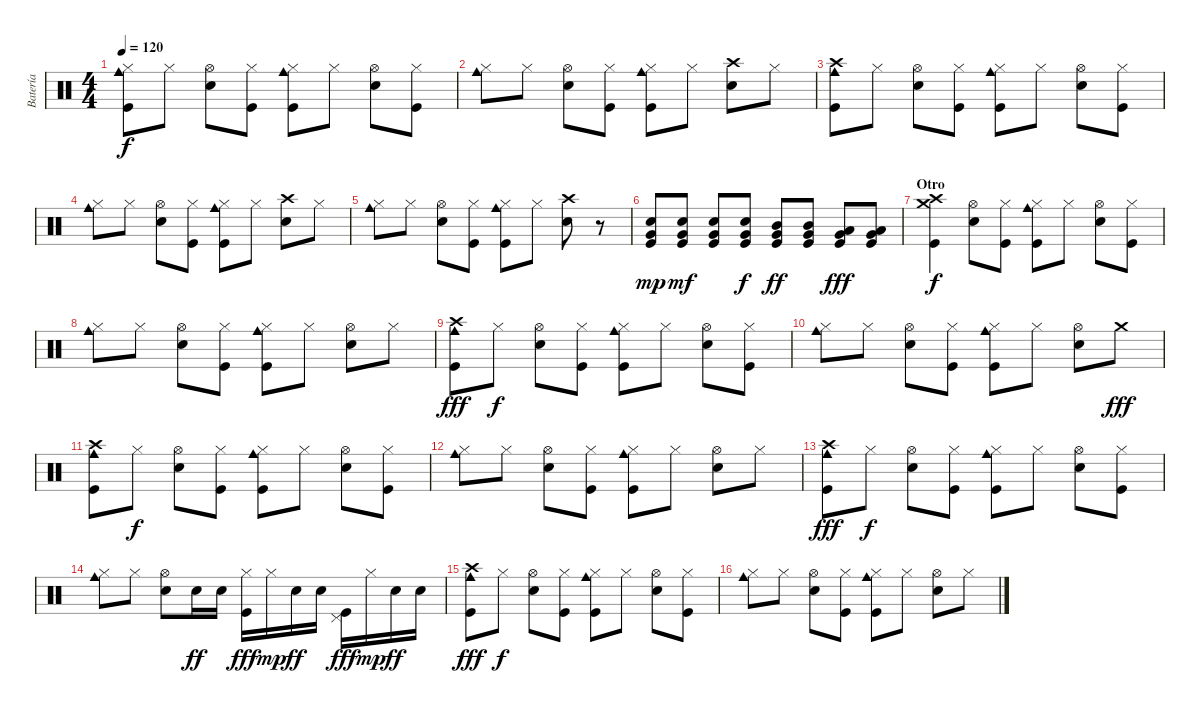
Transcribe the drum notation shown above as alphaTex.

\track ("Batería" "Batería") {instrument percussion}
\staff {score}
\articulation defaults
\ts (4 4)
\tempo 120
\clef neutral
\ks c
("Hi-Hat (closed)" "Cowbell medium (hit)" "Kick (hit)").8{dy f} "Hi-Hat (closed)".8 ("Hi-Hat (open)" "Electric Snare (hit)").8 ("Hi-Hat (closed)" "Kick (hit)").8 ("Hi-Hat (closed)" "Cowbell medium (hit)" "Kick (hit)").8 "Hi-Hat (closed)".8 ("Hi-Hat (open)" "Electric Snare (hit)").8 ("Hi-Hat (closed)" "Kick (hit)").8 |
("Hi-Hat (closed)" "Cowbell medium (hit)").8 "Hi-Hat (closed)".8 ("Hi-Hat (open)" "Electric Snare (hit)").8 ("Hi-Hat (closed)" "Kick (hit)").8 ("Hi-Hat (closed)" "Cowbell medium (hit)" "Kick (hit)").8 "Hi-Hat (closed)".8 ("Crash high (hit)" "Electric Snare (hit)").8 "Hi-Hat (closed)".8 |
("Crash high (hit)" "Cowbell medium (hit)" "Kick (hit)").8 "Hi-Hat (closed)".8 ("Hi-Hat (open)" "Electric Snare (hit)").8 ("Hi-Hat (closed)" "Kick (hit)").8 ("Hi-Hat (closed)" "Cowbell medium (hit)" "Kick (hit)").8 "Hi-Hat (closed)".8 ("Hi-Hat (open)" "Electric Snare (hit)").8 ("Hi-Hat (closed)" "Kick (hit)").8 |
("Hi-Hat (closed)" "Cowbell medium (hit)").8 "Hi-Hat (closed)".8 ("Hi-Hat (open)" "Electric Snare (hit)").8 ("Hi-Hat (closed)" "Kick (hit)").8 ("Hi-Hat (closed)" "Cowbell medium (hit)" "Kick (hit)").8 "Hi-Hat (closed)".8 ("Crash high (hit)" "Electric Snare (hit)").8 "Hi-Hat (closed)".8 |
("Hi-Hat (closed)" "Cowbell medium (hit)").8 "Hi-Hat (closed)".8 ("Hi-Hat (open)" "Electric Snare (hit)").8 ("Hi-Hat (closed)" "Kick (hit)").8 ("Hi-Hat (closed)" "Cowbell medium (hit)" "Kick (hit)").8 "Hi-Hat (closed)".8 ("Crash high (hit)" "Electric Snare (hit)").8 r.8 |
("Electric Snare (hit)" "Very Low Tom (hit)" "Kick (hit)").8{dy mp} ("Electric Snare (hit)" "Very Low Tom (hit)" "Kick (hit)").8{dy mf} ("Electric Snare (hit)" "Very Low Tom (hit)" "Kick (hit)").8 ("Electric Snare (hit)" "Very Low Tom (hit)" "Kick (hit)").8{dy f} ("Very Low Tom (hit)" "Mid Tom (hit)" "Kick (hit)").8{dy ff} ("Very Low Tom (hit)" "Mid Tom (hit)" "Kick (hit)").8 ("Very Low Tom (hit)" "Low Tom (hit)" "Kick (hit)").8{dy fff} ("Very Low Tom (hit)" "Low Tom (hit)" "Kick (hit)").8 |
\section ("" "Otro")
("Crash medium (hit)" "Crash high (hit)" "Kick (hit)").4{dy f} ("Hi-Hat (open)" "Electric Snare (hit)").8 ("Hi-Hat (closed)" "Kick (hit)").8 ("Hi-Hat (closed)" "Cowbell medium (hit)" "Kick (hit)").8 "Hi-Hat (closed)".8 ("Hi-Hat (open)" "Electric Snare (hit)").8 ("Hi-Hat (closed)" "Kick (hit)").8 |
("Hi-Hat (closed)" "Cowbell medium (hit)").8 "Hi-Hat (closed)".8 ("Hi-Hat (open)" "Electric Snare (hit)").8 ("Hi-Hat (closed)" "Kick (hit)").8 ("Hi-Hat (closed)" "Cowbell medium (hit)" "Kick (hit)").8 "Hi-Hat (closed)".8 ("Hi-Hat (open)" "Electric Snare (hit)").8 "Hi-Hat (closed)".8 |
("Crash high (hit)" "Cowbell medium (hit)" "Kick (hit)").8{dy fff} "Hi-Hat (closed)".8{dy f} ("Hi-Hat (open)" "Electric Snare (hit)").8 ("Hi-Hat (closed)" "Kick (hit)").8 ("Hi-Hat (closed)" "Cowbell medium (hit)" "Kick (hit)").8 "Hi-Hat (closed)".8 ("Hi-Hat (open)" "Electric Snare (hit)").8 ("Hi-Hat (closed)" "Kick (hit)").8 |
("Hi-Hat (closed)" "Cowbell medium (hit)").8 "Hi-Hat (closed)".8 ("Hi-Hat (open)" "Electric Snare (hit)").8 ("Hi-Hat (closed)" "Kick (hit)").8 ("Hi-Hat (closed)" "Cowbell medium (hit)" "Kick (hit)").8 "Hi-Hat (closed)".8 ("Hi-Hat (open)" "Electric Snare (hit)").8 "Crash medium (hit)".8{dy fff} |
("Crash high (hit)" "Cowbell medium (hit)" "Kick (hit)").8 "Hi-Hat (closed)".8{dy f} ("Hi-Hat (open)" "Electric Snare (hit)").8 ("Hi-Hat (closed)" "Kick (hit)").8 ("Hi-Hat (closed)" "Cowbell medium (hit)" "Kick (hit)").8 "Hi-Hat (closed)".8 ("Hi-Hat (open)" "Electric Snare (hit)").8 ("Hi-Hat (closed)" "Kick (hit)").8 |
("Hi-Hat (closed)" "Cowbell medium (hit)").8 "Hi-Hat (closed)".8 ("Hi-Hat (open)" "Electric Snare (hit)").8 ("Hi-Hat (closed)" "Kick (hit)").8 ("Hi-Hat (closed)" "Cowbell medium (hit)" "Kick (hit)").8 "Hi-Hat (closed)".8 ("Hi-Hat (open)" "Electric Snare (hit)").8 "Hi-Hat (closed)".8 |
("Crash high (hit)" "Cowbell medium (hit)" "Kick (hit)").8{dy fff volume 9} "Hi-Hat (closed)".8{dy f} ("Hi-Hat (open)" "Electric Snare (hit)").8 ("Hi-Hat (closed)" "Kick (hit)").8 ("Hi-Hat (closed)" "Cowbell medium (hit)" "Kick (hit)").8 "Hi-Hat (closed)".8 ("Hi-Hat (open)" "Electric Snare (hit)").8 ("Hi-Hat (closed)" "Kick (hit)").8 |
("Hi-Hat (closed)" "Cowbell medium (hit)").8 "Hi-Hat (closed)".8 ("Hi-Hat (open)" "Electric Snare (hit)").8 "Electric Snare (hit)".16{dy ff} "Electric Snare (hit)".16 ("Hi-Hat (closed)" "Kick (hit)").16{dy fff} "Hi-Hat (closed)".16{dy mp} "Electric Snare (hit)".16{dy ff} "Electric Snare (hit)".16 ("Pedal Hi-Hat (hit)" "Kick (hit)").16{dy fff} "Hi-Hat (closed)".16{dy mp} "Electric Snare (hit)".16{dy ff} "Electric Snare (hit)".16 |
("Crash high (hit)" "Cowbell medium (hit)" "Kick (hit)").8{dy fff} "Hi-Hat (closed)".8{dy f} ("Hi-Hat (open)" "Electric Snare (hit)").8 ("Hi-Hat (closed)" "Kick (hit)").8 ("Hi-Hat (closed)" "Cowbell medium (hit)" "Kick (hit)").8 "Hi-Hat (closed)".8 ("Hi-Hat (open)" "Electric Snare (hit)").8 ("Hi-Hat (closed)" "Kick (hit)").8 |
("Hi-Hat (closed)" "Cowbell medium (hit)").8 "Hi-Hat (closed)".8 ("Hi-Hat (open)" "Electric Snare (hit)").8 ("Hi-Hat (closed)" "Kick (hit)").8 ("Hi-Hat (closed)" "Cowbell medium (hit)" "Kick (hit)").8 "Hi-Hat (closed)".8 ("Hi-Hat (open)" "Electric Snare (hit)").8 "Hi-Hat (closed)".8
